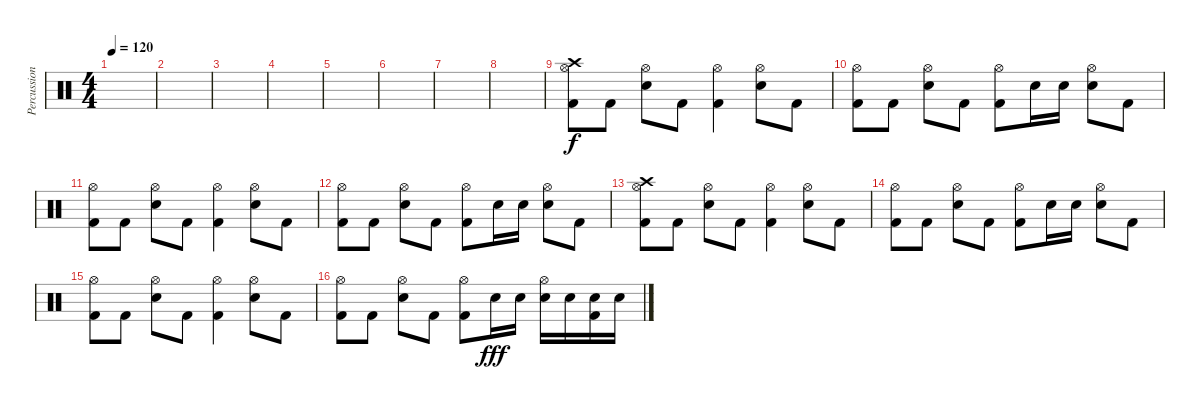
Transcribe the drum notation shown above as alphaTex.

\track ("Percussion" "Percussion") {instrument percussion}
\staff {score}
\articulation defaults
\ts (4 4)
\tempo 120
\clef neutral
\ks c
|
|
|
|
|
|
|
|
("Kick (hit) 2" "Crash high (hit)" "Hi-Hat (open)").8 "Kick (hit) 2".8 ("Electric Snare (hit)" "Hi-Hat (open)").8 "Kick (hit) 2".8 ("Kick (hit) 2" "Hi-Hat (open)").4 ("Electric Snare (hit)" "Hi-Hat (open)").8 "Kick (hit) 2".8 |
("Kick (hit) 2" "Hi-Hat (open)").8 "Kick (hit) 2".8 ("Electric Snare (hit)" "Hi-Hat (open)").8 "Kick (hit) 2".8 ("Kick (hit) 2" "Hi-Hat (open)").8 "Electric Snare (hit)".16 "Electric Snare (hit)".16 ("Electric Snare (hit)" "Hi-Hat (open)").8 "Kick (hit) 2".8 |
("Kick (hit) 2" "Hi-Hat (open)").8 "Kick (hit) 2".8 ("Electric Snare (hit)" "Hi-Hat (open)").8 "Kick (hit) 2".8 ("Kick (hit) 2" "Hi-Hat (open)").4 ("Electric Snare (hit)" "Hi-Hat (open)").8 "Kick (hit) 2".8 |
("Kick (hit) 2" "Hi-Hat (open)").8 "Kick (hit) 2".8 ("Electric Snare (hit)" "Hi-Hat (open)").8 "Kick (hit) 2".8 ("Kick (hit) 2" "Hi-Hat (open)").8 "Electric Snare (hit)".16 "Electric Snare (hit)".16 ("Electric Snare (hit)" "Hi-Hat (open)").8 "Kick (hit) 2".8 |
("Kick (hit) 2" "Crash high (hit)" "Hi-Hat (open)").8 "Kick (hit) 2".8 ("Electric Snare (hit)" "Hi-Hat (open)").8 "Kick (hit) 2".8 ("Kick (hit) 2" "Hi-Hat (open)").4 ("Electric Snare (hit)" "Hi-Hat (open)").8 "Kick (hit) 2".8 |
("Kick (hit) 2" "Hi-Hat (open)").8 "Kick (hit) 2".8 ("Electric Snare (hit)" "Hi-Hat (open)").8 "Kick (hit) 2".8 ("Kick (hit) 2" "Hi-Hat (open)").8 "Electric Snare (hit)".16 "Electric Snare (hit)".16 ("Electric Snare (hit)" "Hi-Hat (open)").8 "Kick (hit) 2".8 |
("Kick (hit) 2" "Hi-Hat (open)").8 "Kick (hit) 2".8 ("Electric Snare (hit)" "Hi-Hat (open)").8 "Kick (hit) 2".8 ("Kick (hit) 2" "Hi-Hat (open)").4 ("Electric Snare (hit)" "Hi-Hat (open)").8 "Kick (hit) 2".8 |
("Kick (hit) 2" "Hi-Hat (open)").8 "Kick (hit) 2".8 ("Electric Snare (hit)" "Hi-Hat (open)").8 "Kick (hit) 2".8 ("Kick (hit) 2" "Hi-Hat (open)").8 "Electric Snare (hit)".16{dy fff} "Electric Snare (hit)".16 ("Electric Snare (hit)" "Hi-Hat (open)").16 "Electric Snare (hit)".16 ("Kick (hit) 2" "Electric Snare (hit)").16 "Electric Snare (hit)".16
